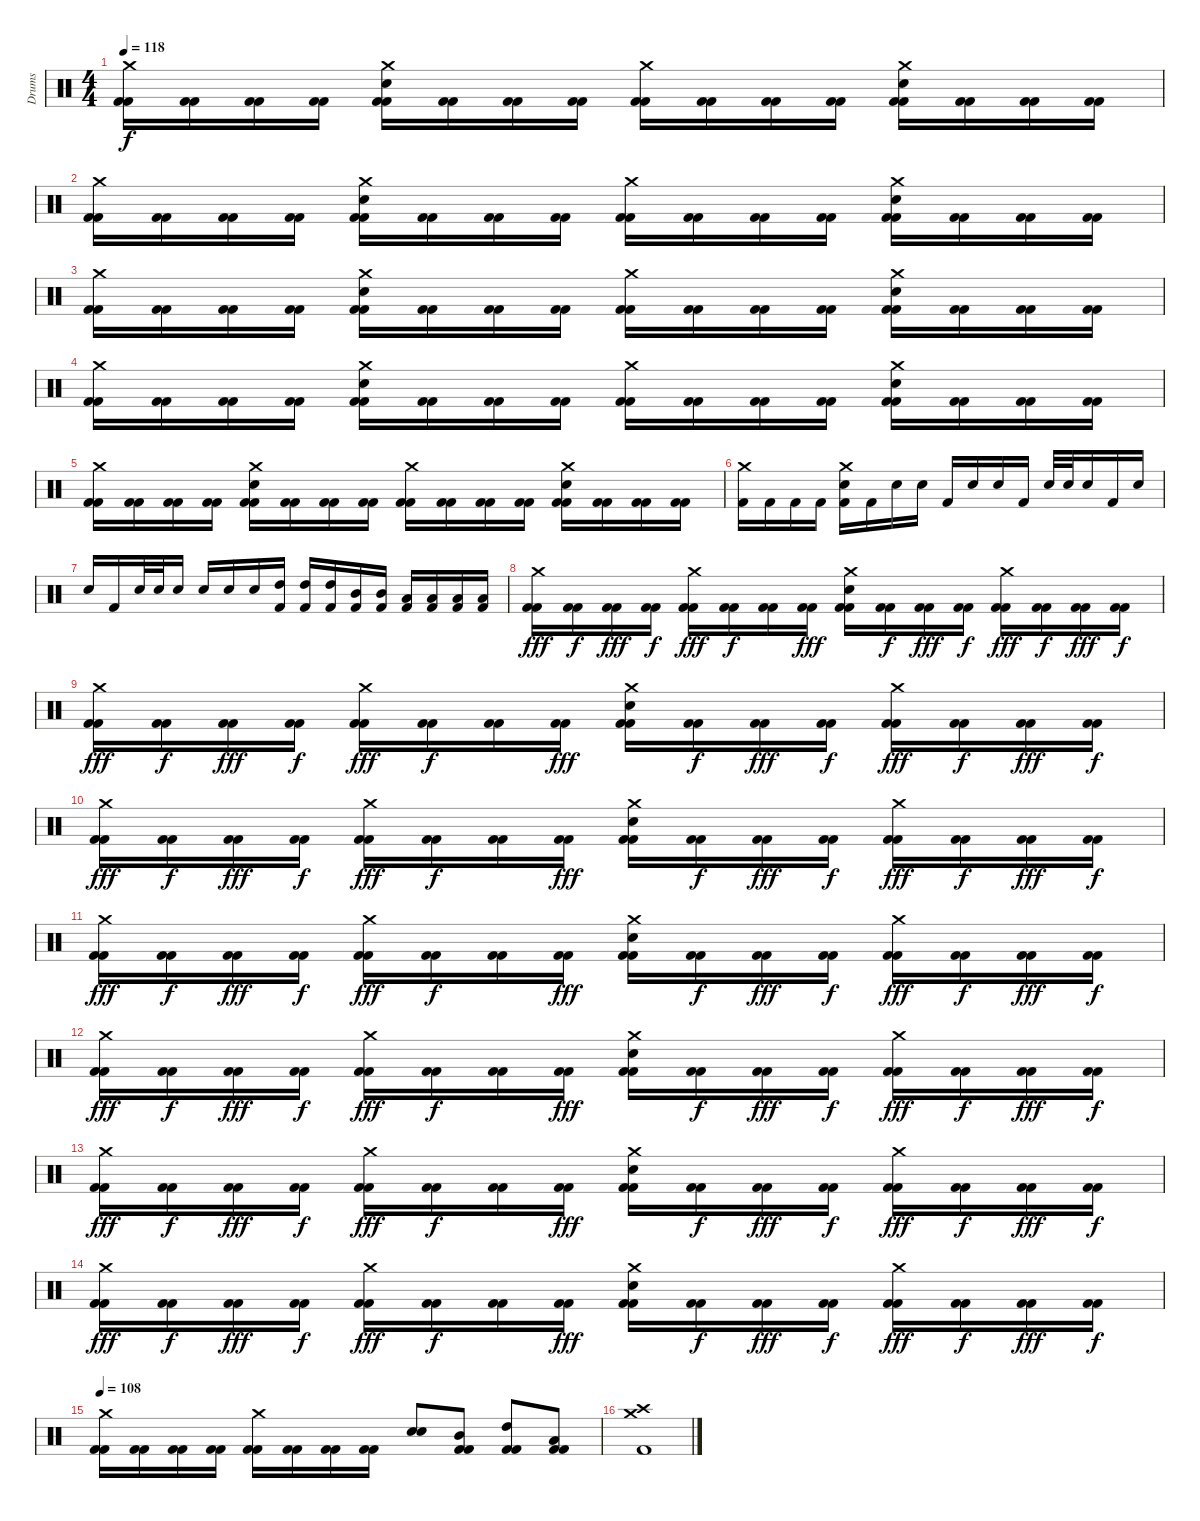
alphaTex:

\track ("Drums" "Drums") {instrument percussion}
\staff {score}
\articulation defaults
\ts (4 4)
\tempo 118
\clef neutral
\ks c
("Crash medium (hit)" "Kick (hit) 2" "Kick (hit) 2").16{dy f} ("Kick (hit) 2" "Kick (hit) 2").16 ("Kick (hit) 2" "Kick (hit) 2").16 ("Kick (hit) 2" "Kick (hit) 2").16 ("Crash medium (hit)" "Electric Snare (hit)" "Kick (hit) 2" "Kick (hit) 2").16 ("Kick (hit) 2" "Kick (hit) 2").16 ("Kick (hit) 2" "Kick (hit) 2").16 ("Kick (hit) 2" "Kick (hit) 2").16 ("Crash medium (hit)" "Kick (hit) 2" "Kick (hit) 2").16 ("Kick (hit) 2" "Kick (hit) 2").16 ("Kick (hit) 2" "Kick (hit) 2").16 ("Kick (hit) 2" "Kick (hit) 2").16 ("Crash medium (hit)" "Electric Snare (hit)" "Kick (hit) 2" "Kick (hit) 2").16 ("Kick (hit) 2" "Kick (hit) 2").16 ("Kick (hit) 2" "Kick (hit) 2").16 ("Kick (hit) 2" "Kick (hit) 2").16 |
("Crash medium (hit)" "Kick (hit) 2" "Kick (hit) 2").16 ("Kick (hit) 2" "Kick (hit) 2").16 ("Kick (hit) 2" "Kick (hit) 2").16 ("Kick (hit) 2" "Kick (hit) 2").16 ("Crash medium (hit)" "Electric Snare (hit)" "Kick (hit) 2" "Kick (hit) 2").16 ("Kick (hit) 2" "Kick (hit) 2").16 ("Kick (hit) 2" "Kick (hit) 2").16 ("Kick (hit) 2" "Kick (hit) 2").16 ("Crash medium (hit)" "Kick (hit) 2" "Kick (hit) 2").16 ("Kick (hit) 2" "Kick (hit) 2").16 ("Kick (hit) 2" "Kick (hit) 2").16 ("Kick (hit) 2" "Kick (hit) 2").16 ("Crash medium (hit)" "Electric Snare (hit)" "Kick (hit) 2" "Kick (hit) 2").16 ("Kick (hit) 2" "Kick (hit) 2").16 ("Kick (hit) 2" "Kick (hit) 2").16 ("Kick (hit) 2" "Kick (hit) 2").16 |
("Crash medium (hit)" "Kick (hit) 2" "Kick (hit) 2").16 ("Kick (hit) 2" "Kick (hit) 2").16 ("Kick (hit) 2" "Kick (hit) 2").16 ("Kick (hit) 2" "Kick (hit) 2").16 ("Crash medium (hit)" "Electric Snare (hit)" "Kick (hit) 2" "Kick (hit) 2").16 ("Kick (hit) 2" "Kick (hit) 2").16 ("Kick (hit) 2" "Kick (hit) 2").16 ("Kick (hit) 2" "Kick (hit) 2").16 ("Crash medium (hit)" "Kick (hit) 2" "Kick (hit) 2").16 ("Kick (hit) 2" "Kick (hit) 2").16 ("Kick (hit) 2" "Kick (hit) 2").16 ("Kick (hit) 2" "Kick (hit) 2").16 ("Crash medium (hit)" "Electric Snare (hit)" "Kick (hit) 2" "Kick (hit) 2").16 ("Kick (hit) 2" "Kick (hit) 2").16 ("Kick (hit) 2" "Kick (hit) 2").16 ("Kick (hit) 2" "Kick (hit) 2").16 |
("Crash medium (hit)" "Kick (hit) 2" "Kick (hit) 2").16 ("Kick (hit) 2" "Kick (hit) 2").16 ("Kick (hit) 2" "Kick (hit) 2").16 ("Kick (hit) 2" "Kick (hit) 2").16 ("Crash medium (hit)" "Electric Snare (hit)" "Kick (hit) 2" "Kick (hit) 2").16 ("Kick (hit) 2" "Kick (hit) 2").16 ("Kick (hit) 2" "Kick (hit) 2").16 ("Kick (hit) 2" "Kick (hit) 2").16 ("Crash medium (hit)" "Kick (hit) 2" "Kick (hit) 2").16 ("Kick (hit) 2" "Kick (hit) 2").16 ("Kick (hit) 2" "Kick (hit) 2").16 ("Kick (hit) 2" "Kick (hit) 2").16 ("Crash medium (hit)" "Electric Snare (hit)" "Kick (hit) 2" "Kick (hit) 2").16 ("Kick (hit) 2" "Kick (hit) 2").16 ("Kick (hit) 2" "Kick (hit) 2").16 ("Kick (hit) 2" "Kick (hit) 2").16 |
("Crash medium (hit)" "Kick (hit) 2" "Kick (hit) 2").16 ("Kick (hit) 2" "Kick (hit) 2").16 ("Kick (hit) 2" "Kick (hit) 2").16 ("Kick (hit) 2" "Kick (hit) 2").16 ("Crash medium (hit)" "Electric Snare (hit)" "Kick (hit) 2" "Kick (hit) 2").16 ("Kick (hit) 2" "Kick (hit) 2").16 ("Kick (hit) 2" "Kick (hit) 2").16 ("Kick (hit) 2" "Kick (hit) 2").16 ("Crash medium (hit)" "Kick (hit) 2" "Kick (hit) 2").16 ("Kick (hit) 2" "Kick (hit) 2").16 ("Kick (hit) 2" "Kick (hit) 2").16 ("Kick (hit) 2" "Kick (hit) 2").16 ("Crash medium (hit)" "Electric Snare (hit)" "Kick (hit) 2" "Kick (hit) 2").16 ("Kick (hit) 2" "Kick (hit) 2").16 ("Kick (hit) 2" "Kick (hit) 2").16 ("Kick (hit) 2" "Kick (hit) 2").16 |
("Crash medium (hit)" "Kick (hit) 2").16 "Kick (hit) 2".16 "Kick (hit) 2".16 "Kick (hit) 2".16 ("Crash medium (hit)" "Electric Snare (hit)" "Kick (hit) 2").16 "Kick (hit) 2".16 "Electric Snare (hit)".16 "Electric Snare (hit)".16 "Kick (hit) 2".16 "Electric Snare (hit)".16 "Electric Snare (hit)".16 "Kick (hit) 2".16 "Electric Snare (hit)".32 "Electric Snare (hit)".32 "Electric Snare (hit)".16 "Kick (hit) 2".16 "Electric Snare (hit)".16 |
"Electric Snare (hit)".16 "Kick (hit) 2".16 "Electric Snare (hit)".32 "Electric Snare (hit)".32 "Electric Snare (hit)".16 "Electric Snare (hit)".16 "Electric Snare (hit)".16 "Electric Snare (hit)".16 ("High Tom (hit)" "Kick (hit) 2").16 ("High Tom (hit)" "Kick (hit) 2").16 ("High Tom (hit)" "Kick (hit) 2").16 ("Mid Tom (hit)" "Kick (hit) 2").16 ("Mid Tom (hit)" "Kick (hit) 2").16 ("Low Tom (hit)" "Kick (hit) 2").16 ("Low Tom (hit)" "Kick (hit) 2").16 ("Low Floor Tom (hit)" "Kick (hit) 2").16 ("Low Floor Tom (hit)" "Kick (hit) 2").16 |
("Crash medium (hit)" "Kick (hit) 2" "Kick (hit) 2").16{dy fff} ("Kick (hit) 2" "Kick (hit) 2").16{dy f} ("Kick (hit) 2" "Kick (hit) 2").16{dy fff} ("Kick (hit) 2" "Kick (hit) 2").16{dy f} ("Crash medium (hit)" "Kick (hit) 2" "Kick (hit) 2").16{dy fff} ("Kick (hit) 2" "Kick (hit) 2").16{dy f} ("Kick (hit) 2" "Kick (hit) 2").16 ("Kick (hit) 2" "Kick (hit) 2").16{dy fff} ("Crash medium (hit)" "Electric Snare (hit)" "Kick (hit) 2" "Kick (hit) 2").16 ("Kick (hit) 2" "Kick (hit) 2").16{dy f} ("Kick (hit) 2" "Kick (hit) 2").16{dy fff} ("Kick (hit) 2" "Kick (hit) 2").16{dy f} ("Crash medium (hit)" "Kick (hit) 2" "Kick (hit) 2").16{dy fff} ("Kick (hit) 2" "Kick (hit) 2").16{dy f} ("Kick (hit) 2" "Kick (hit) 2").16{dy fff} ("Kick (hit) 2" "Kick (hit) 2").16{dy f} |
("Crash medium (hit)" "Kick (hit) 2" "Kick (hit) 2").16{dy fff} ("Kick (hit) 2" "Kick (hit) 2").16{dy f} ("Kick (hit) 2" "Kick (hit) 2").16{dy fff} ("Kick (hit) 2" "Kick (hit) 2").16{dy f} ("Crash medium (hit)" "Kick (hit) 2" "Kick (hit) 2").16{dy fff} ("Kick (hit) 2" "Kick (hit) 2").16{dy f} ("Kick (hit) 2" "Kick (hit) 2").16 ("Kick (hit) 2" "Kick (hit) 2").16{dy fff} ("Crash medium (hit)" "Electric Snare (hit)" "Kick (hit) 2" "Kick (hit) 2").16 ("Kick (hit) 2" "Kick (hit) 2").16{dy f} ("Kick (hit) 2" "Kick (hit) 2").16{dy fff} ("Kick (hit) 2" "Kick (hit) 2").16{dy f} ("Crash medium (hit)" "Kick (hit) 2" "Kick (hit) 2").16{dy fff} ("Kick (hit) 2" "Kick (hit) 2").16{dy f} ("Kick (hit) 2" "Kick (hit) 2").16{dy fff} ("Kick (hit) 2" "Kick (hit) 2").16{dy f} |
("Crash medium (hit)" "Kick (hit) 2" "Kick (hit) 2").16{dy fff} ("Kick (hit) 2" "Kick (hit) 2").16{dy f} ("Kick (hit) 2" "Kick (hit) 2").16{dy fff} ("Kick (hit) 2" "Kick (hit) 2").16{dy f} ("Crash medium (hit)" "Kick (hit) 2" "Kick (hit) 2").16{dy fff} ("Kick (hit) 2" "Kick (hit) 2").16{dy f} ("Kick (hit) 2" "Kick (hit) 2").16 ("Kick (hit) 2" "Kick (hit) 2").16{dy fff} ("Crash medium (hit)" "Electric Snare (hit)" "Kick (hit) 2" "Kick (hit) 2").16 ("Kick (hit) 2" "Kick (hit) 2").16{dy f} ("Kick (hit) 2" "Kick (hit) 2").16{dy fff} ("Kick (hit) 2" "Kick (hit) 2").16{dy f} ("Crash medium (hit)" "Kick (hit) 2" "Kick (hit) 2").16{dy fff} ("Kick (hit) 2" "Kick (hit) 2").16{dy f} ("Kick (hit) 2" "Kick (hit) 2").16{dy fff} ("Kick (hit) 2" "Kick (hit) 2").16{dy f} |
("Crash medium (hit)" "Kick (hit) 2" "Kick (hit) 2").16{dy fff} ("Kick (hit) 2" "Kick (hit) 2").16{dy f} ("Kick (hit) 2" "Kick (hit) 2").16{dy fff} ("Kick (hit) 2" "Kick (hit) 2").16{dy f} ("Crash medium (hit)" "Kick (hit) 2" "Kick (hit) 2").16{dy fff} ("Kick (hit) 2" "Kick (hit) 2").16{dy f} ("Kick (hit) 2" "Kick (hit) 2").16 ("Kick (hit) 2" "Kick (hit) 2").16{dy fff} ("Crash medium (hit)" "Electric Snare (hit)" "Kick (hit) 2" "Kick (hit) 2").16 ("Kick (hit) 2" "Kick (hit) 2").16{dy f} ("Kick (hit) 2" "Kick (hit) 2").16{dy fff} ("Kick (hit) 2" "Kick (hit) 2").16{dy f} ("Crash medium (hit)" "Kick (hit) 2" "Kick (hit) 2").16{dy fff} ("Kick (hit) 2" "Kick (hit) 2").16{dy f} ("Kick (hit) 2" "Kick (hit) 2").16{dy fff} ("Kick (hit) 2" "Kick (hit) 2").16{dy f} |
("Crash medium (hit)" "Kick (hit) 2" "Kick (hit) 2").16{dy fff} ("Kick (hit) 2" "Kick (hit) 2").16{dy f} ("Kick (hit) 2" "Kick (hit) 2").16{dy fff} ("Kick (hit) 2" "Kick (hit) 2").16{dy f} ("Crash medium (hit)" "Kick (hit) 2" "Kick (hit) 2").16{dy fff} ("Kick (hit) 2" "Kick (hit) 2").16{dy f} ("Kick (hit) 2" "Kick (hit) 2").16 ("Kick (hit) 2" "Kick (hit) 2").16{dy fff} ("Crash medium (hit)" "Electric Snare (hit)" "Kick (hit) 2" "Kick (hit) 2").16 ("Kick (hit) 2" "Kick (hit) 2").16{dy f} ("Kick (hit) 2" "Kick (hit) 2").16{dy fff} ("Kick (hit) 2" "Kick (hit) 2").16{dy f} ("Crash medium (hit)" "Kick (hit) 2" "Kick (hit) 2").16{dy fff} ("Kick (hit) 2" "Kick (hit) 2").16{dy f} ("Kick (hit) 2" "Kick (hit) 2").16{dy fff} ("Kick (hit) 2" "Kick (hit) 2").16{dy f} |
("Crash medium (hit)" "Kick (hit) 2" "Kick (hit) 2").16{dy fff} ("Kick (hit) 2" "Kick (hit) 2").16{dy f} ("Kick (hit) 2" "Kick (hit) 2").16{dy fff} ("Kick (hit) 2" "Kick (hit) 2").16{dy f} ("Crash medium (hit)" "Kick (hit) 2" "Kick (hit) 2").16{dy fff} ("Kick (hit) 2" "Kick (hit) 2").16{dy f} ("Kick (hit) 2" "Kick (hit) 2").16 ("Kick (hit) 2" "Kick (hit) 2").16{dy fff} ("Crash medium (hit)" "Electric Snare (hit)" "Kick (hit) 2" "Kick (hit) 2").16 ("Kick (hit) 2" "Kick (hit) 2").16{dy f} ("Kick (hit) 2" "Kick (hit) 2").16{dy fff} ("Kick (hit) 2" "Kick (hit) 2").16{dy f} ("Crash medium (hit)" "Kick (hit) 2" "Kick (hit) 2").16{dy fff} ("Kick (hit) 2" "Kick (hit) 2").16{dy f} ("Kick (hit) 2" "Kick (hit) 2").16{dy fff} ("Kick (hit) 2" "Kick (hit) 2").16{dy f} |
("Crash medium (hit)" "Kick (hit) 2" "Kick (hit) 2").16{dy fff} ("Kick (hit) 2" "Kick (hit) 2").16{dy f} ("Kick (hit) 2" "Kick (hit) 2").16{dy fff} ("Kick (hit) 2" "Kick (hit) 2").16{dy f} ("Crash medium (hit)" "Kick (hit) 2" "Kick (hit) 2").16{dy fff} ("Kick (hit) 2" "Kick (hit) 2").16{dy f} ("Kick (hit) 2" "Kick (hit) 2").16 ("Kick (hit) 2" "Kick (hit) 2").16{dy fff} ("Crash medium (hit)" "Electric Snare (hit)" "Kick (hit) 2" "Kick (hit) 2").16 ("Kick (hit) 2" "Kick (hit) 2").16{dy f} ("Kick (hit) 2" "Kick (hit) 2").16{dy fff} ("Kick (hit) 2" "Kick (hit) 2").16{dy f} ("Crash medium (hit)" "Kick (hit) 2" "Kick (hit) 2").16{dy fff} ("Kick (hit) 2" "Kick (hit) 2").16{dy f} ("Kick (hit) 2" "Kick (hit) 2").16{dy fff} ("Kick (hit) 2" "Kick (hit) 2").16{dy f} |
\tempo 108
("Crash medium (hit)" "Kick (hit) 2" "Kick (hit) 2").16 ("Kick (hit) 2" "Kick (hit) 2").16 ("Kick (hit) 2" "Kick (hit) 2").16 ("Kick (hit) 2" "Kick (hit) 2").16 ("Crash medium (hit)" "Kick (hit) 2" "Kick (hit) 2").16 ("Kick (hit) 2" "Kick (hit) 2").16 ("Kick (hit) 2" "Kick (hit) 2").16 ("Kick (hit) 2" "Kick (hit) 2").16 ("Electric Snare (hit)" "Electric Snare (hit)").8 ("Mid Tom (hit)" "Kick (hit) 2" "Kick (hit) 2").8 ("High Tom (hit)" "Kick (hit) 2" "Kick (hit) 2").8 ("Low Tom (hit)" "Kick (hit) 2" "Kick (hit) 2").8 |
("Crash medium (hit)" "Crash high (hit)" "Kick (hit) 2").1
